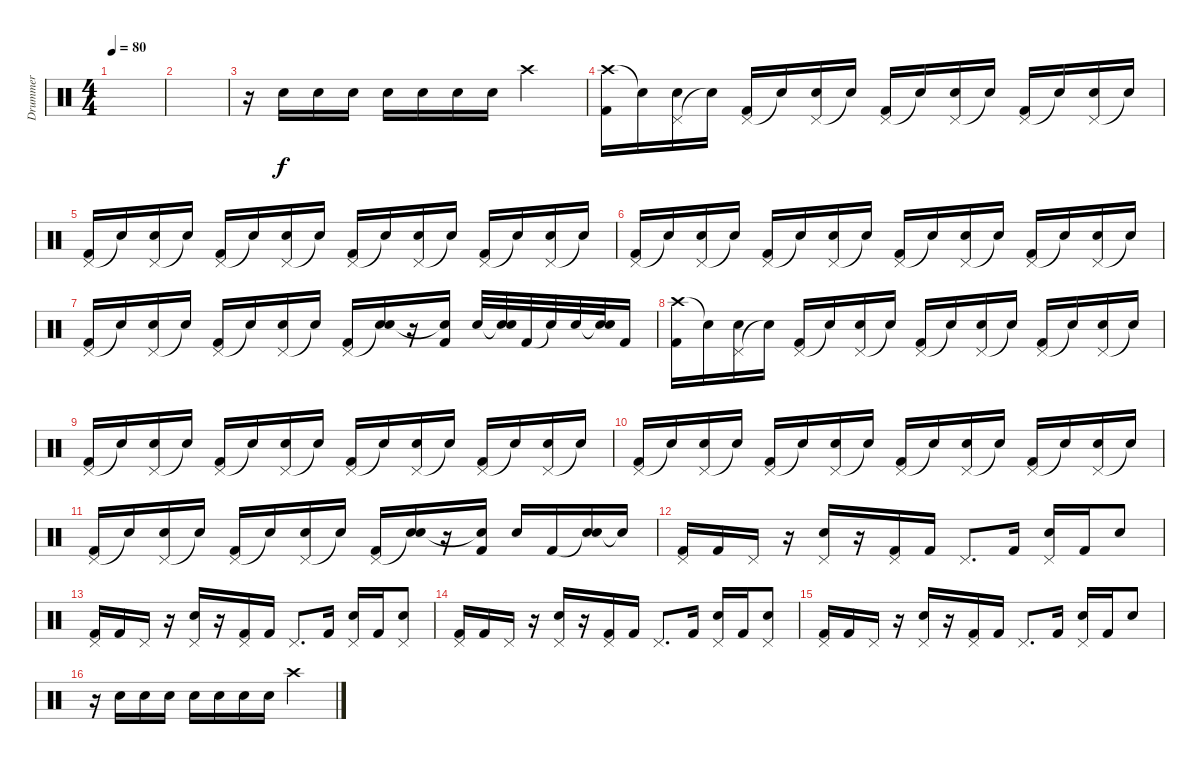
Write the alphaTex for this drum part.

\track ("Drummer" "Drummer") {instrument percussion}
\staff {score}
\articulation defaults
\ts (4 4)
\tempo 80
\clef neutral
\ks c
|
|
r.16 "Electric Snare (hit)".16 "Electric Snare (hit)".16 "Electric Snare (hit)".16 "Electric Snare (hit)".16 "Electric Snare (hit)".16 "Electric Snare (hit)".16 "Electric Snare (hit)".16 "Crash high (hit)".2 |
("Crash high (hit)" "Kick (hit) 2").16 "Snare (hit)"{t}.16 ("Pedal Hi-Hat (hit)" "Electric Snare (hit)").16 "Snare (hit)"{t}.16 ("Pedal Hi-Hat (hit)" "Kick (hit) 2").16 "Snare (hit)"{t}.16 ("Pedal Hi-Hat (hit)" "Electric Snare (hit)").16 "Snare (hit)"{t}.16 ("Pedal Hi-Hat (hit)" "Kick (hit) 2").16 "Snare (hit)"{t}.16 ("Pedal Hi-Hat (hit)" "Electric Snare (hit)").16 "Snare (hit)"{t}.16 ("Pedal Hi-Hat (hit)" "Kick (hit) 2").16 "Snare (hit)"{t}.16 ("Pedal Hi-Hat (hit)" "Electric Snare (hit)").16 "Snare (hit)"{t}.16 |
("Pedal Hi-Hat (hit)" "Kick (hit) 2").16 "Snare (hit)"{t}.16 ("Pedal Hi-Hat (hit)" "Electric Snare (hit)").16 "Snare (hit)"{t}.16 ("Pedal Hi-Hat (hit)" "Kick (hit) 2").16 "Snare (hit)"{t}.16 ("Pedal Hi-Hat (hit)" "Electric Snare (hit)").16 "Snare (hit)"{t}.16 ("Pedal Hi-Hat (hit)" "Kick (hit) 2").16 "Snare (hit)"{t}.16 ("Pedal Hi-Hat (hit)" "Electric Snare (hit)").16 "Snare (hit)"{t}.16 ("Pedal Hi-Hat (hit)" "Kick (hit) 2").16 "Snare (hit)"{t}.16 ("Pedal Hi-Hat (hit)" "Electric Snare (hit)").16 "Snare (hit)"{t}.16 |
("Pedal Hi-Hat (hit)" "Kick (hit) 2").16 "Snare (hit)"{t}.16 ("Pedal Hi-Hat (hit)" "Electric Snare (hit)").16 "Snare (hit)"{t}.16 ("Pedal Hi-Hat (hit)" "Kick (hit) 2").16 "Snare (hit)"{t}.16 ("Pedal Hi-Hat (hit)" "Electric Snare (hit)").16 "Snare (hit)"{t}.16 ("Pedal Hi-Hat (hit)" "Kick (hit) 2").16 "Snare (hit)"{t}.16 ("Pedal Hi-Hat (hit)" "Electric Snare (hit)").16 "Snare (hit)"{t}.16 ("Pedal Hi-Hat (hit)" "Kick (hit) 2").16 "Snare (hit)"{t}.16 ("Pedal Hi-Hat (hit)" "Electric Snare (hit)").16 "Snare (hit)"{t}.16 |
("Pedal Hi-Hat (hit)" "Kick (hit) 2").16 "Snare (hit)"{t}.16 ("Pedal Hi-Hat (hit)" "Electric Snare (hit)").16 "Snare (hit)"{t}.16 ("Pedal Hi-Hat (hit)" "Kick (hit) 2").16 "Snare (hit)"{t}.16 ("Pedal Hi-Hat (hit)" "Electric Snare (hit)").16 "Snare (hit)"{t}.16 ("Pedal Hi-Hat (hit)" "Kick (hit) 2").16 ("Snare (hit)"{t} "Electric Snare (hit)").16 r.16 ("Snare (hit)"{t} "Kick (hit) 2").16 "Electric Snare (hit)".32 ("Snare (hit)"{t} "Electric Snare (hit)").32 "Kick (hit) 2".32 "Snare (hit)"{t}.32 "Electric Snare (hit)".32 ("Snare (hit)"{t} "Electric Snare (hit)").32 "Kick (hit) 2".16 |
("Crash high (hit)" "Kick (hit) 2").16 "Snare (hit)"{t}.16 ("Pedal Hi-Hat (hit)" "Electric Snare (hit)").16 "Snare (hit)"{t}.16 ("Pedal Hi-Hat (hit)" "Kick (hit) 2").16 "Snare (hit)"{t}.16 ("Pedal Hi-Hat (hit)" "Electric Snare (hit)").16 "Snare (hit)"{t}.16 ("Pedal Hi-Hat (hit)" "Kick (hit) 2").16 "Snare (hit)"{t}.16 ("Pedal Hi-Hat (hit)" "Electric Snare (hit)").16 "Snare (hit)"{t}.16 ("Pedal Hi-Hat (hit)" "Kick (hit) 2").16 "Snare (hit)"{t}.16 ("Pedal Hi-Hat (hit)" "Electric Snare (hit)").16 "Snare (hit)"{t}.16 |
("Pedal Hi-Hat (hit)" "Kick (hit) 2").16 "Snare (hit)"{t}.16 ("Pedal Hi-Hat (hit)" "Electric Snare (hit)").16 "Snare (hit)"{t}.16 ("Pedal Hi-Hat (hit)" "Kick (hit) 2").16 "Snare (hit)"{t}.16 ("Pedal Hi-Hat (hit)" "Electric Snare (hit)").16 "Snare (hit)"{t}.16 ("Pedal Hi-Hat (hit)" "Kick (hit) 2").16 "Snare (hit)"{t}.16 ("Pedal Hi-Hat (hit)" "Electric Snare (hit)").16 "Snare (hit)"{t}.16 ("Pedal Hi-Hat (hit)" "Kick (hit) 2").16 "Snare (hit)"{t}.16 ("Pedal Hi-Hat (hit)" "Electric Snare (hit)").16 "Snare (hit)"{t}.16 |
("Pedal Hi-Hat (hit)" "Kick (hit) 2").16 "Snare (hit)"{t}.16 ("Pedal Hi-Hat (hit)" "Electric Snare (hit)").16 "Snare (hit)"{t}.16 ("Pedal Hi-Hat (hit)" "Kick (hit) 2").16 "Snare (hit)"{t}.16 ("Pedal Hi-Hat (hit)" "Electric Snare (hit)").16 "Snare (hit)"{t}.16 ("Pedal Hi-Hat (hit)" "Kick (hit) 2").16 "Snare (hit)"{t}.16 ("Pedal Hi-Hat (hit)" "Electric Snare (hit)").16 "Snare (hit)"{t}.16 ("Pedal Hi-Hat (hit)" "Kick (hit) 2").16 "Snare (hit)"{t}.16 ("Pedal Hi-Hat (hit)" "Electric Snare (hit)").16 "Snare (hit)"{t}.16 |
("Pedal Hi-Hat (hit)" "Kick (hit) 2").16 "Snare (hit)"{t}.16 ("Pedal Hi-Hat (hit)" "Electric Snare (hit)").16 "Snare (hit)"{t}.16 ("Pedal Hi-Hat (hit)" "Kick (hit) 2").16 "Snare (hit)"{t}.16 ("Pedal Hi-Hat (hit)" "Electric Snare (hit)").16 "Snare (hit)"{t}.16 ("Pedal Hi-Hat (hit)" "Kick (hit) 2").16 ("Snare (hit)"{t} "Electric Snare (hit)").16 r.16 ("Snare (hit)"{t} "Kick (hit) 2").16 "Electric Snare (hit)".16 "Kick (hit) 2".16 ("Snare (hit)"{t} "Electric Snare (hit)").16 "Snare (hit)"{t}.16 |
("Pedal Hi-Hat (hit)" "Kick (hit) 2").16 "Kick (hit) 2".16 "Pedal Hi-Hat (hit)".16 r.16 ("Pedal Hi-Hat (hit)" "Electric Snare (hit)").16 r.16 ("Pedal Hi-Hat (hit)" "Kick (hit) 2").16 "Kick (hit) 2".16 "Pedal Hi-Hat (hit)".8{d} "Kick (hit) 2".16 ("Pedal Hi-Hat (hit)" "Electric Snare (hit)").16 "Kick (hit) 2".16 "Electric Snare (hit)".8 |
("Pedal Hi-Hat (hit)" "Kick (hit) 2").16 "Kick (hit) 2".16 "Pedal Hi-Hat (hit)".16 r.16 ("Pedal Hi-Hat (hit)" "Electric Snare (hit)").16 r.16 ("Pedal Hi-Hat (hit)" "Kick (hit) 2").16 "Kick (hit) 2".16 "Pedal Hi-Hat (hit)".8{d} "Kick (hit) 2".16 ("Pedal Hi-Hat (hit)" "Electric Snare (hit)").16 "Kick (hit) 2".16 ("Pedal Hi-Hat (hit)" "Electric Snare (hit)").8 |
("Pedal Hi-Hat (hit)" "Kick (hit) 2").16 "Kick (hit) 2".16 "Pedal Hi-Hat (hit)".16 r.16 ("Pedal Hi-Hat (hit)" "Electric Snare (hit)").16 r.16 ("Pedal Hi-Hat (hit)" "Kick (hit) 2").16 "Kick (hit) 2".16 "Pedal Hi-Hat (hit)".8{d} "Kick (hit) 2".16 ("Pedal Hi-Hat (hit)" "Electric Snare (hit)").16 "Kick (hit) 2".16 ("Pedal Hi-Hat (hit)" "Electric Snare (hit)").8 |
("Pedal Hi-Hat (hit)" "Kick (hit) 2").16 "Kick (hit) 2".16 "Pedal Hi-Hat (hit)".16 r.16 ("Pedal Hi-Hat (hit)" "Electric Snare (hit)").16 r.16 ("Pedal Hi-Hat (hit)" "Kick (hit) 2").16 "Kick (hit) 2".16 "Pedal Hi-Hat (hit)".8{d} "Kick (hit) 2".16 ("Pedal Hi-Hat (hit)" "Electric Snare (hit)").16 "Kick (hit) 2".16 "Electric Snare (hit)".8 |
r.16 "Electric Snare (hit)".16 "Electric Snare (hit)".16 "Electric Snare (hit)".16 "Electric Snare (hit)".16 "Electric Snare (hit)".16 "Electric Snare (hit)".16 "Electric Snare (hit)".16 "Crash high (hit)".2
